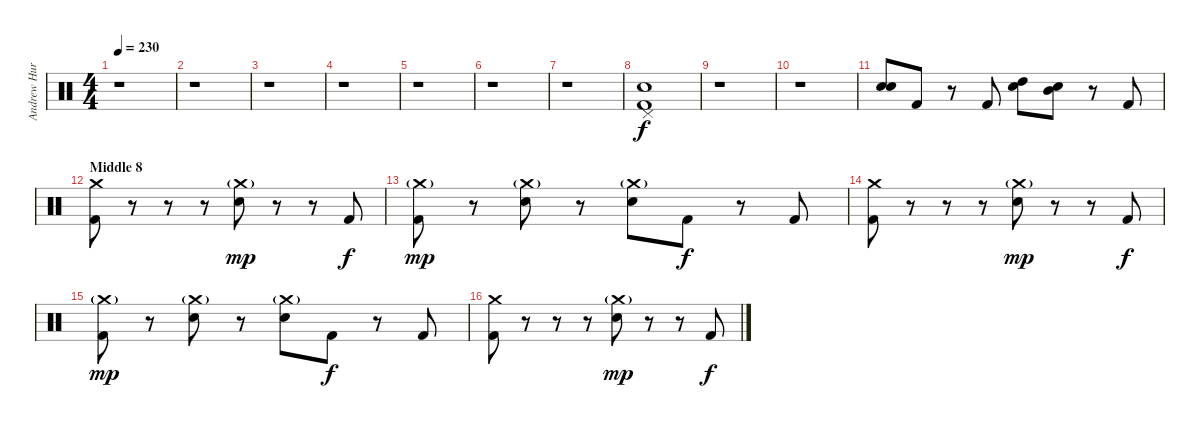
\track ("Andrew Hurley (Drums)" "Andrew Hur") {instrument percussion}
\staff {score}
\articulation defaults
\ts (4 4)
\tempo 230
\clef neutral
\ks c
r.1{dy f} |
r.1 |
r.1 |
r.1 |
r.1 |
r.1 |
r.1 |
("Pedal Hi-Hat (hit)" "Electric Snare (hit)" "Kick (hit) 2").1 |
r.1 |
r.1 |
("Electric Snare (hit)" "Electric Snare (hit)").8 "Kick (hit) 2".8 r.8 "Kick (hit) 2".8 ("Electric Snare (hit)" "High Tom (hit)").8 ("Electric Snare (hit)" "Mid Tom (hit)").8 r.8 "Kick (hit) 2".8 |
\section ("" "Middle 8")
("Crash medium (hit)" "Kick (hit) 2").8 r.8 r.8 r.8 ("Crash medium (hit)"{g} "Electric Snare (hit)").8{dy mp} r.8 r.8 "Kick (hit) 2".8{dy f} |
("Crash medium (hit)"{g} "Kick (hit) 2").8{dy mp} r.8 ("Crash medium (hit)"{g} "Electric Snare (hit)").8 r.8 ("Crash medium (hit)"{g} "Electric Snare (hit)").8 "Kick (hit) 2".8{dy f} r.8 "Kick (hit) 2".8 |
("Crash medium (hit)" "Kick (hit) 2").8 r.8 r.8 r.8 ("Crash medium (hit)"{g} "Electric Snare (hit)").8{dy mp} r.8 r.8 "Kick (hit) 2".8{dy f} |
("Crash medium (hit)"{g} "Kick (hit) 2").8{dy mp} r.8 ("Crash medium (hit)"{g} "Electric Snare (hit)").8 r.8 ("Crash medium (hit)"{g} "Electric Snare (hit)").8 "Kick (hit) 2".8{dy f} r.8 "Kick (hit) 2".8 |
("Crash medium (hit)" "Kick (hit) 2").8 r.8 r.8 r.8 ("Crash medium (hit)"{g} "Electric Snare (hit)").8{dy mp} r.8 r.8 "Kick (hit) 2".8{dy f}
